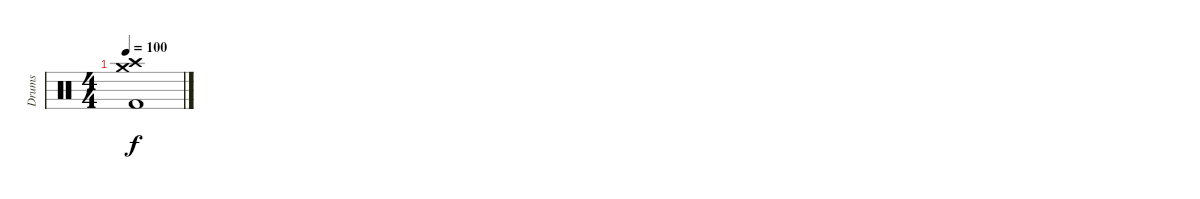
\track ("Drums" "Drums") {instrument percussion}
\staff {score}
\articulation defaults
\ts (4 4)
\tempo 100
\clef neutral
\ks c
("Kick (hit) 2" "Crash medium (hit)" "Crash high (hit)").1{dy f volume 14}
